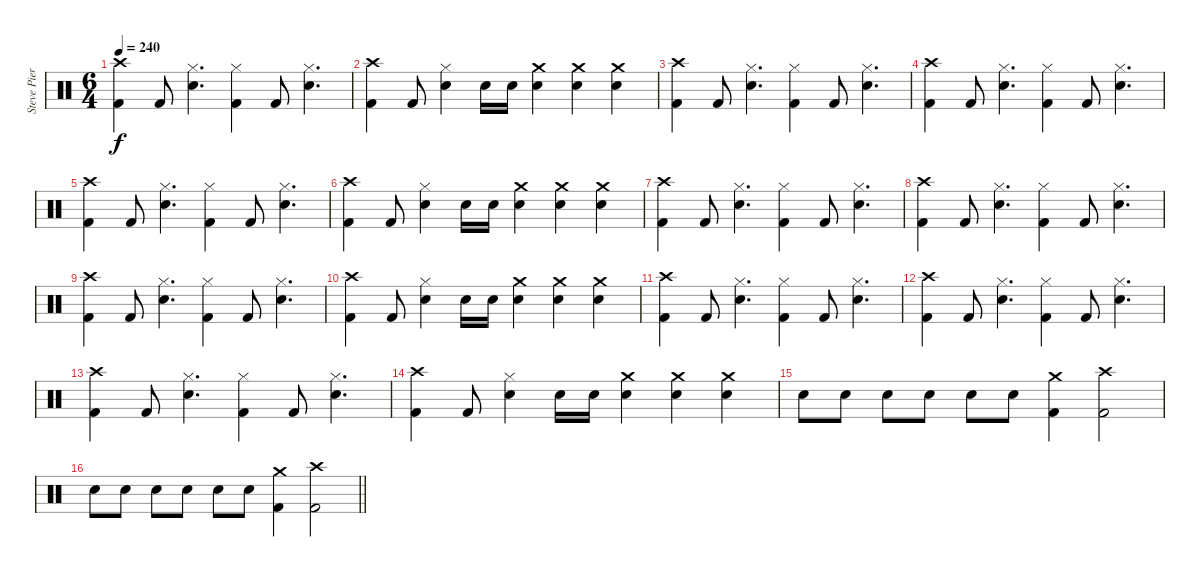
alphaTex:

\track ("Steve Pierce" "Steve Pier") {instrument percussion}
\staff {score}
\articulation defaults
\ts (6 4)
\tempo 240
\clef neutral
\ks c
("Crash high (hit)" "Kick (hit) 2").4{dy f} "Kick (hit) 2".8 ("Hi-Hat (closed)" "Snare (hit) 2").4{d} ("Hi-Hat (closed)" "Kick (hit) 2").4 "Kick (hit) 2".8 ("Hi-Hat (closed)" "Snare (hit) 2").4{d} |
("Crash high (hit)" "Kick (hit) 2").4 "Kick (hit) 2".8 ("Hi-Hat (closed)" "Snare (hit) 2").4 "Snare (hit) 2".16 "Snare (hit) 2".16 ("Crash medium (hit)" "Snare (hit) 2").4 ("Crash medium (hit)" "Snare (hit) 2").4 ("Crash medium (hit)" "Snare (hit) 2").4 |
("Crash high (hit)" "Kick (hit) 2").4 "Kick (hit) 2".8 ("Hi-Hat (closed)" "Snare (hit) 2").4{d} ("Hi-Hat (closed)" "Kick (hit) 2").4 "Kick (hit) 2".8 ("Hi-Hat (closed)" "Snare (hit) 2").4{d} |
("Crash high (hit)" "Kick (hit) 2").4 "Kick (hit) 2".8 ("Hi-Hat (closed)" "Snare (hit) 2").4{d} ("Hi-Hat (closed)" "Kick (hit) 2").4 "Kick (hit) 2".8 ("Hi-Hat (closed)" "Snare (hit) 2").4{d} |
("Crash high (hit)" "Kick (hit) 2").4 "Kick (hit) 2".8 ("Hi-Hat (closed)" "Snare (hit) 2").4{d} ("Hi-Hat (closed)" "Kick (hit) 2").4 "Kick (hit) 2".8 ("Hi-Hat (closed)" "Snare (hit) 2").4{d} |
("Crash high (hit)" "Kick (hit) 2").4 "Kick (hit) 2".8 ("Hi-Hat (closed)" "Snare (hit) 2").4 "Snare (hit) 2".16 "Snare (hit) 2".16 ("Crash medium (hit)" "Snare (hit) 2").4 ("Crash medium (hit)" "Snare (hit) 2").4 ("Crash medium (hit)" "Snare (hit) 2").4 |
("Crash high (hit)" "Kick (hit) 2").4 "Kick (hit) 2".8 ("Hi-Hat (closed)" "Snare (hit) 2").4{d} ("Hi-Hat (closed)" "Kick (hit) 2").4 "Kick (hit) 2".8 ("Hi-Hat (closed)" "Snare (hit) 2").4{d} |
("Crash high (hit)" "Kick (hit) 2").4 "Kick (hit) 2".8 ("Hi-Hat (closed)" "Snare (hit) 2").4{d} ("Hi-Hat (closed)" "Kick (hit) 2").4 "Kick (hit) 2".8 ("Hi-Hat (closed)" "Snare (hit) 2").4{d} |
("Crash high (hit)" "Kick (hit) 2").4 "Kick (hit) 2".8 ("Hi-Hat (closed)" "Snare (hit) 2").4{d} ("Hi-Hat (closed)" "Kick (hit) 2").4 "Kick (hit) 2".8 ("Hi-Hat (closed)" "Snare (hit) 2").4{d} |
("Crash high (hit)" "Kick (hit) 2").4 "Kick (hit) 2".8 ("Hi-Hat (closed)" "Snare (hit) 2").4 "Snare (hit) 2".16 "Snare (hit) 2".16 ("Crash medium (hit)" "Snare (hit) 2").4 ("Crash medium (hit)" "Snare (hit) 2").4 ("Crash medium (hit)" "Snare (hit) 2").4 |
("Crash high (hit)" "Kick (hit) 2").4 "Kick (hit) 2".8 ("Hi-Hat (closed)" "Snare (hit) 2").4{d} ("Hi-Hat (closed)" "Kick (hit) 2").4 "Kick (hit) 2".8 ("Hi-Hat (closed)" "Snare (hit) 2").4{d} |
("Crash high (hit)" "Kick (hit) 2").4 "Kick (hit) 2".8 ("Hi-Hat (closed)" "Snare (hit) 2").4{d} ("Hi-Hat (closed)" "Kick (hit) 2").4 "Kick (hit) 2".8 ("Hi-Hat (closed)" "Snare (hit) 2").4{d} |
("Crash high (hit)" "Kick (hit) 2").4 "Kick (hit) 2".8 ("Hi-Hat (closed)" "Snare (hit) 2").4{d} ("Hi-Hat (closed)" "Kick (hit) 2").4 "Kick (hit) 2".8 ("Hi-Hat (closed)" "Snare (hit) 2").4{d} |
("Crash high (hit)" "Kick (hit) 2").4 "Kick (hit) 2".8 ("Hi-Hat (closed)" "Snare (hit) 2").4 "Snare (hit) 2".16 "Snare (hit) 2".16 ("Crash medium (hit)" "Snare (hit) 2").4 ("Crash medium (hit)" "Snare (hit) 2").4 ("Crash medium (hit)" "Snare (hit) 2").4 |
"Snare (hit) 2".8 "Snare (hit) 2".8 "Snare (hit) 2".8 "Snare (hit) 2".8 "Snare (hit) 2".8 "Snare (hit) 2".8 ("Crash medium (hit)" "Kick (hit) 2").4 ("Crash high (hit)" "Kick (hit) 2").2 |
\barLineRight lightlight "Snare (hit) 2".8 "Snare (hit) 2".8 "Snare (hit) 2".8 "Snare (hit) 2".8 "Snare (hit) 2".8 "Snare (hit) 2".8
("Crash medium (hit)" "Kick (hit) 2").4 ("Crash high (hit)" "Kick (hit) 2").2
